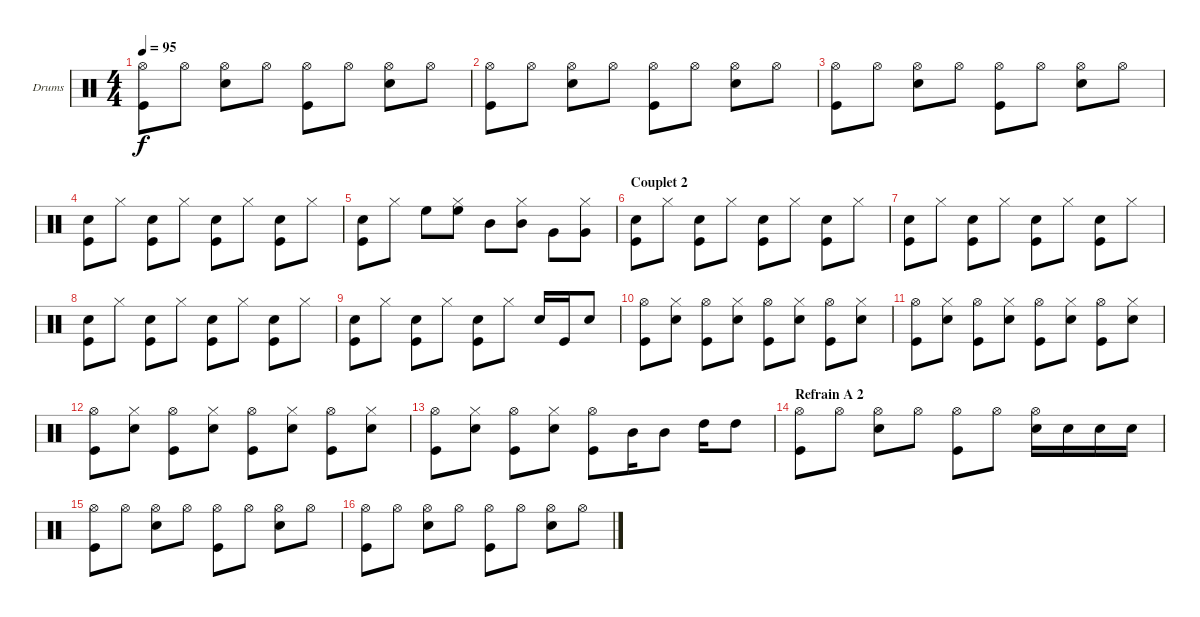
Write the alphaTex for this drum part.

\bracketExtendMode groupsimilarinstruments
\firstSystemTrackNameOrientation horizontal
\otherSystemsTrackNameOrientation horizontal
\chordDiagramsInScore
\track ("Drumkit" "Drums") {instrument percussion}
\staff {score}
\articulation defaults
\ts (4 4)
\tempo 95
\clef neutral
\ks c
("Hi-Hat (open)" "Kick (hit)").8{dy f} "Hi-Hat (open)".8 ("Hi-Hat (open)" "Snare (hit) 2").8 "Hi-Hat (open)".8 ("Hi-Hat (open)" "Kick (hit)").8 "Hi-Hat (open)".8 ("Hi-Hat (open)" "Snare (hit) 2").8 "Hi-Hat (open)".8 |
("Hi-Hat (open)" "Kick (hit)").8 "Hi-Hat (open)".8 ("Hi-Hat (open)" "Snare (hit) 2").8 "Hi-Hat (open)".8 ("Hi-Hat (open)" "Kick (hit)").8 "Hi-Hat (open)".8 ("Hi-Hat (open)" "Snare (hit) 2").8 "Hi-Hat (open)".8 |
("Hi-Hat (open)" "Kick (hit)").8 "Hi-Hat (open)".8 ("Hi-Hat (open)" "Snare (hit) 2").8 "Hi-Hat (open)".8 ("Hi-Hat (open)" "Kick (hit)").8 "Hi-Hat (open)".8 ("Hi-Hat (open)" "Snare (hit) 2").8 "Hi-Hat (open)".8 |
("Snare (hit) 2" "Kick (hit)").8 "Hi-Hat (closed)".8 ("Snare (hit) 2" "Kick (hit)").8 "Hi-Hat (closed)".8 ("Snare (hit) 2" "Kick (hit)").8 "Hi-Hat (closed)".8 ("Snare (hit) 2" "Kick (hit)").8 "Hi-Hat (closed)".8 |
("Snare (hit) 2" "Kick (hit)").8 "Hi-Hat (closed)".8 "High Floor Tom (hit)".8 ("Hi-Hat (closed)" "High Floor Tom (hit)").8 "Mid Tom (hit)".8 ("Hi-Hat (closed)" "Mid Tom (hit)").8 "Very Low Tom (hit)".8 ("Hi-Hat (closed)" "Very Low Tom (hit)").8 |
\section ("" "Couplet 2")
("Snare (hit) 2" "Kick (hit)").8 "Hi-Hat (closed)".8 ("Snare (hit) 2" "Kick (hit)").8 "Hi-Hat (closed)".8 ("Snare (hit) 2" "Kick (hit)").8 "Hi-Hat (closed)".8 ("Snare (hit) 2" "Kick (hit)").8 "Hi-Hat (closed)".8 |
("Snare (hit) 2" "Kick (hit)").8 "Hi-Hat (closed)".8 ("Snare (hit) 2" "Kick (hit)").8 "Hi-Hat (closed)".8 ("Snare (hit) 2" "Kick (hit)").8 "Hi-Hat (closed)".8 ("Snare (hit) 2" "Kick (hit)").8 "Hi-Hat (closed)".8 |
("Snare (hit) 2" "Kick (hit)").8 "Hi-Hat (closed)".8 ("Snare (hit) 2" "Kick (hit)").8 "Hi-Hat (closed)".8 ("Snare (hit) 2" "Kick (hit)").8 "Hi-Hat (closed)".8 ("Snare (hit) 2" "Kick (hit)").8 "Hi-Hat (closed)".8 |
("Snare (hit) 2" "Kick (hit)").8 "Hi-Hat (closed)".8 ("Snare (hit) 2" "Kick (hit)").8 "Hi-Hat (closed)".8 ("Snare (hit) 2" "Kick (hit)").8 "Hi-Hat (closed)".8 "Snare (hit) 2".16 "Kick (hit)".16 "Snare (hit) 2".8 |
("Hi-Hat (open)" "Kick (hit)").8 ("Hi-Hat (closed)" "Snare (hit) 2").8 ("Hi-Hat (open)" "Kick (hit)").8 ("Hi-Hat (closed)" "Snare (hit) 2").8 ("Hi-Hat (open)" "Kick (hit)").8 ("Hi-Hat (closed)" "Snare (hit) 2").8 ("Hi-Hat (open)" "Kick (hit)").8 ("Hi-Hat (closed)" "Snare (hit) 2").8 |
("Hi-Hat (open)" "Kick (hit)").8 ("Hi-Hat (closed)" "Snare (hit) 2").8 ("Hi-Hat (open)" "Kick (hit)").8 ("Hi-Hat (closed)" "Snare (hit) 2").8 ("Hi-Hat (open)" "Kick (hit)").8 ("Hi-Hat (closed)" "Snare (hit) 2").8 ("Hi-Hat (open)" "Kick (hit)").8 ("Hi-Hat (closed)" "Snare (hit) 2").8 |
("Hi-Hat (open)" "Kick (hit)").8 ("Hi-Hat (closed)" "Snare (hit) 2").8 ("Hi-Hat (open)" "Kick (hit)").8 ("Hi-Hat (closed)" "Snare (hit) 2").8 ("Hi-Hat (open)" "Kick (hit)").8 ("Hi-Hat (closed)" "Snare (hit) 2").8 ("Hi-Hat (open)" "Kick (hit)").8 ("Hi-Hat (closed)" "Snare (hit) 2").8 |
("Hi-Hat (open)" "Kick (hit)").8 ("Hi-Hat (closed)" "Snare (hit) 2").8 ("Hi-Hat (open)" "Kick (hit)").8 ("Hi-Hat (closed)" "Snare (hit) 2").8 ("Hi-Hat (open)" "Kick (hit)").8 "Mid Tom (hit)".16 "Mid Tom (hit)".8 "High Tom (hit)".16 "High Tom (hit)".8 |
\section ("" "Refrain A 2")
("Hi-Hat (open)" "Kick (hit)").8 "Hi-Hat (open)".8 ("Hi-Hat (open)" "Snare (hit) 2").8 "Hi-Hat (open)".8 ("Hi-Hat (open)" "Kick (hit)").8 "Hi-Hat (open)".8 ("Hi-Hat (open)" "Snare (hit) 2").16 "Snare (hit) 2".16 "Snare (hit) 2".16 "Snare (hit) 2".16 |
("Hi-Hat (open)" "Kick (hit)").8 "Hi-Hat (open)".8 ("Hi-Hat (open)" "Snare (hit) 2").8 "Hi-Hat (open)".8 ("Hi-Hat (open)" "Kick (hit)").8 "Hi-Hat (open)".8 ("Hi-Hat (open)" "Snare (hit) 2").8 "Hi-Hat (open)".8 |
("Hi-Hat (open)" "Kick (hit)").8 "Hi-Hat (open)".8 ("Hi-Hat (open)" "Snare (hit) 2").8 "Hi-Hat (open)".8 ("Hi-Hat (open)" "Kick (hit)").8 "Hi-Hat (open)".8 ("Hi-Hat (open)" "Snare (hit) 2").8 "Hi-Hat (open)".8
